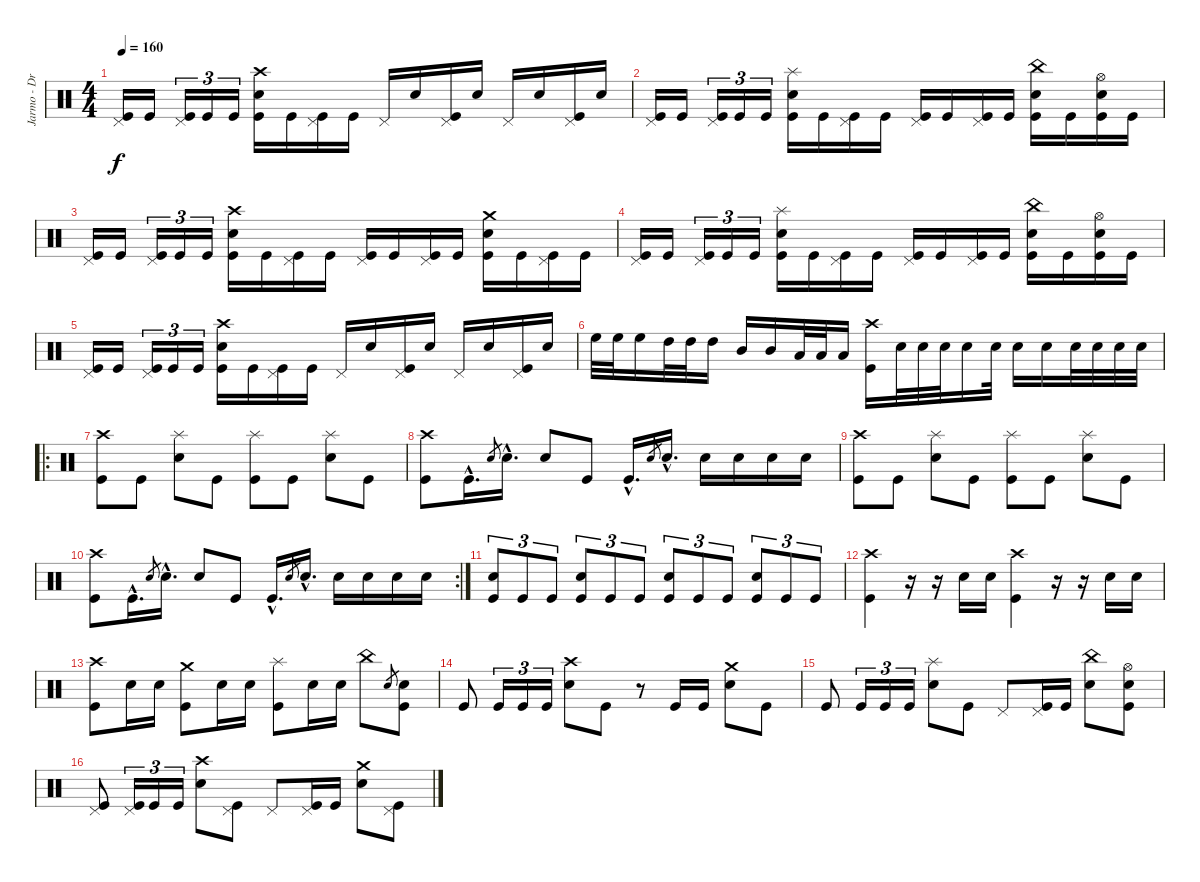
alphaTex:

\track ("Jarmo - Drums" "Jarmo - Dr") {instrument percussion}
\staff {score}
\articulation defaults
\ts (4 4)
\tempo 160
\clef neutral
\ks c
("Kick (hit)" "Pedal Hi-Hat (hit)").16{dy f} "Kick (hit)".16 ("Kick (hit)" "Pedal Hi-Hat (hit)").16{tu (3 2)} "Kick (hit)".16{tu (3 2)} "Kick (hit)".16{tu (3 2)} ("Kick (hit)" "Electric Snare (hit)" "Crash high (hit)").16 "Kick (hit)".16 ("Kick (hit)" "Pedal Hi-Hat (hit)").16 "Kick (hit)".16 "Pedal Hi-Hat (hit)".16 "Electric Snare (hit)".16 ("Kick (hit)" "Pedal Hi-Hat (hit)").16 "Electric Snare (hit)".16 "Pedal Hi-Hat (hit)".16 "Electric Snare (hit)".16 ("Kick (hit)" "Pedal Hi-Hat (hit)").16 "Electric Snare (hit)".16 |
("Kick (hit)" "Pedal Hi-Hat (hit)").16 "Kick (hit)".16 ("Kick (hit)" "Pedal Hi-Hat (hit)").16{tu (3 2)} "Kick (hit)".16{tu (3 2)} "Kick (hit)".16{tu (3 2)} ("Kick (hit)" "Electric Snare (hit)" "Splash (hit)").16 "Kick (hit)".16 ("Kick (hit)" "Pedal Hi-Hat (hit)").16 "Kick (hit)".16 ("Kick (hit)" "Pedal Hi-Hat (hit)").16 "Kick (hit)".16 ("Kick (hit)" "Pedal Hi-Hat (hit)").16 "Kick (hit)".16 ("Kick (hit)" "Electric Snare (hit)" "China (hit)").16 "Kick (hit)".16 ("Kick (hit)" "Electric Snare (hit)" "Hi-Hat (open)").16 "Kick (hit)".16 |
("Kick (hit)" "Pedal Hi-Hat (hit)").16 "Kick (hit)".16 ("Kick (hit)" "Pedal Hi-Hat (hit)").16{tu (3 2)} "Kick (hit)".16{tu (3 2)} "Kick (hit)".16{tu (3 2)} ("Kick (hit)" "Electric Snare (hit)" "Crash high (hit)").16 "Kick (hit)".16 ("Kick (hit)" "Pedal Hi-Hat (hit)").16 "Kick (hit)".16 ("Kick (hit)" "Pedal Hi-Hat (hit)").16 "Kick (hit)".16 ("Kick (hit)" "Pedal Hi-Hat (hit)").16 "Kick (hit)".16 ("Kick (hit)" "Electric Snare (hit)" "Crash medium (hit)").16 "Kick (hit)".16 ("Kick (hit)" "Pedal Hi-Hat (hit)").16 "Kick (hit)".16 |
("Kick (hit)" "Pedal Hi-Hat (hit)").16 "Kick (hit)".16 ("Kick (hit)" "Pedal Hi-Hat (hit)").16{tu (3 2)} "Kick (hit)".16{tu (3 2)} "Kick (hit)".16{tu (3 2)} ("Kick (hit)" "Electric Snare (hit)" "Splash (hit)").16 "Kick (hit)".16 ("Kick (hit)" "Pedal Hi-Hat (hit)").16 "Kick (hit)".16 ("Kick (hit)" "Pedal Hi-Hat (hit)").16 "Kick (hit)".16 ("Kick (hit)" "Pedal Hi-Hat (hit)").16 "Kick (hit)".16 ("Kick (hit)" "Electric Snare (hit)" "China (hit)").16 "Kick (hit)".16 ("Kick (hit)" "Electric Snare (hit)" "Hi-Hat (open)").16 "Kick (hit)".16 |
("Kick (hit)" "Pedal Hi-Hat (hit)").16 "Kick (hit)".16 ("Kick (hit)" "Pedal Hi-Hat (hit)").16{tu (3 2)} "Kick (hit)".16{tu (3 2)} "Kick (hit)".16{tu (3 2)} ("Kick (hit)" "Electric Snare (hit)" "Crash high (hit)").16 "Kick (hit)".16 ("Kick (hit)" "Pedal Hi-Hat (hit)").16 "Kick (hit)".16 "Pedal Hi-Hat (hit)".16 "Electric Snare (hit)".16 ("Kick (hit)" "Pedal Hi-Hat (hit)").16 "Electric Snare (hit)".16 "Pedal Hi-Hat (hit)".16 "Electric Snare (hit)".16 ("Kick (hit)" "Pedal Hi-Hat (hit)").16 "Electric Snare (hit)".16 |
"High Floor Tom (hit)".32 "High Floor Tom (hit)".32 "High Floor Tom (hit)".16 "High Tom (hit)".32 "High Tom (hit)".32 "High Tom (hit)".16 "Mid Tom (hit)".16 "Mid Tom (hit)".16 "Low Tom (hit)".32 "Low Tom (hit)".32 "Low Tom (hit)".16 ("Kick (hit)" "Crash high (hit)").16 "Electric Snare (hit)".32 "Electric Snare (hit)".32 "Electric Snare (hit)".32 "Electric Snare (hit)".16 "Electric Snare (hit)".32 "Electric Snare (hit)".16 "Electric Snare (hit)".16 "Electric Snare (hit)".32 "Electric Snare (hit)".32 "Electric Snare (hit)".32 "Electric Snare (hit)".32 |
\ro
("Kick (hit)" "Crash high (hit)").8 "Kick (hit)".8 ("Electric Snare (hit)" "Splash (hit)").8 "Kick (hit)".8 ("Kick (hit)" "Splash (hit)").8 "Kick (hit)".8 ("Electric Snare (hit)" "Splash (hit)").8 "Kick (hit)".8 |
("Kick (hit)" "Crash high (hit)").8 "Kick (hit)"{hac}.16{d} "Snare (hit) 2"{h}.8{gr} "Electric Snare (hit)"{hac}.16{d} "Electric Snare (hit)".8 "Kick (hit)".8 "Kick (hit)"{hac}.16{d} "Snare (hit) 2"{h}.8{gr} "Electric Snare (hit)"{hac}.16{d} "Electric Snare (hit)".16 "Electric Snare (hit)".16 "Electric Snare (hit)".16 "Electric Snare (hit)".16 |
("Kick (hit)" "Crash high (hit)").8 "Kick (hit)".8 ("Electric Snare (hit)" "Splash (hit)").8 "Kick (hit)".8 ("Kick (hit)" "Splash (hit)").8 "Kick (hit)".8 ("Electric Snare (hit)" "Splash (hit)").8 "Kick (hit)".8 |
\rc 2
("Kick (hit)" "Crash high (hit)").8 "Kick (hit)"{hac}.16{d} "Snare (hit) 2"{h}.8{gr} "Electric Snare (hit)"{hac}.16{d} "Electric Snare (hit)".8 "Kick (hit)".8 "Kick (hit)"{hac}.16{d} "Snare (hit) 2"{h}.8{gr} "Electric Snare (hit)"{hac}.16{d} "Electric Snare (hit)".16 "Electric Snare (hit)".16 "Electric Snare (hit)".16 "Electric Snare (hit)".16 |
("Kick (hit)" "Electric Snare (hit)").8{tu (3 2)} "Kick (hit)".8{tu (3 2)} "Kick (hit)".8{tu (3 2)} ("Kick (hit)" "Electric Snare (hit)").8{tu (3 2)} "Kick (hit)".8{tu (3 2)} "Kick (hit)".8{tu (3 2)} ("Kick (hit)" "Electric Snare (hit)").8{tu (3 2)} "Kick (hit)".8{tu (3 2)} "Kick (hit)".8{tu (3 2)} ("Kick (hit)" "Electric Snare (hit)").8{tu (3 2)} "Kick (hit)".8{tu (3 2)} "Kick (hit)".8{tu (3 2)} |
("Kick (hit)" "Crash high (hit)").4 r.16 r.16 "Electric Snare (hit)".16 "Electric Snare (hit)".16 ("Kick (hit)" "Crash high (hit)").4 r.16 r.16 "Electric Snare (hit)".16 "Electric Snare (hit)".16 |
("Kick (hit)" "Crash high (hit)").8 "Electric Snare (hit)".16 "Electric Snare (hit)".16 ("Kick (hit)" "Crash medium (hit)").8 "Electric Snare (hit)".16 "Electric Snare (hit)".16 ("Kick (hit)" "Splash (hit)").8 "Electric Snare (hit)".16 "Electric Snare (hit)".16 "China (hit)".8 "Snare (hit) 2".8{gr} ("Kick (hit)" "Electric Snare (hit)").8 |
"Kick (hit)".8 "Kick (hit)".16{tu (3 2)} "Kick (hit)".16{tu (3 2)} "Kick (hit)".16{tu (3 2)} ("Electric Snare (hit)" "Crash high (hit)").8 "Kick (hit)".8 r.8 "Kick (hit)".16 "Kick (hit)".16 ("Electric Snare (hit)" "Crash medium (hit)").8 "Kick (hit)".8 |
"Kick (hit)".8 "Kick (hit)".16{tu (3 2)} "Kick (hit)".16{tu (3 2)} "Kick (hit)".16{tu (3 2)} ("Electric Snare (hit)" "Splash (hit)").8 "Kick (hit)".8 "Pedal Hi-Hat (hit)".8 ("Kick (hit)" "Pedal Hi-Hat (hit)").16 "Kick (hit)".16 ("Electric Snare (hit)" "China (hit)").8 ("Kick (hit)" "Electric Snare (hit)" "Hi-Hat (open)").8 |
("Kick (hit)" "Pedal Hi-Hat (hit)").8 ("Kick (hit)" "Pedal Hi-Hat (hit)").16{tu (3 2)} "Kick (hit)".16{tu (3 2)} "Kick (hit)".16{tu (3 2)} ("Electric Snare (hit)" "Crash high (hit)").8 ("Kick (hit)" "Pedal Hi-Hat (hit)").8 "Pedal Hi-Hat (hit)".8 ("Kick (hit)" "Pedal Hi-Hat (hit)").16 "Kick (hit)".16 ("Electric Snare (hit)" "Crash medium (hit)").8 ("Kick (hit)" "Pedal Hi-Hat (hit)").8
